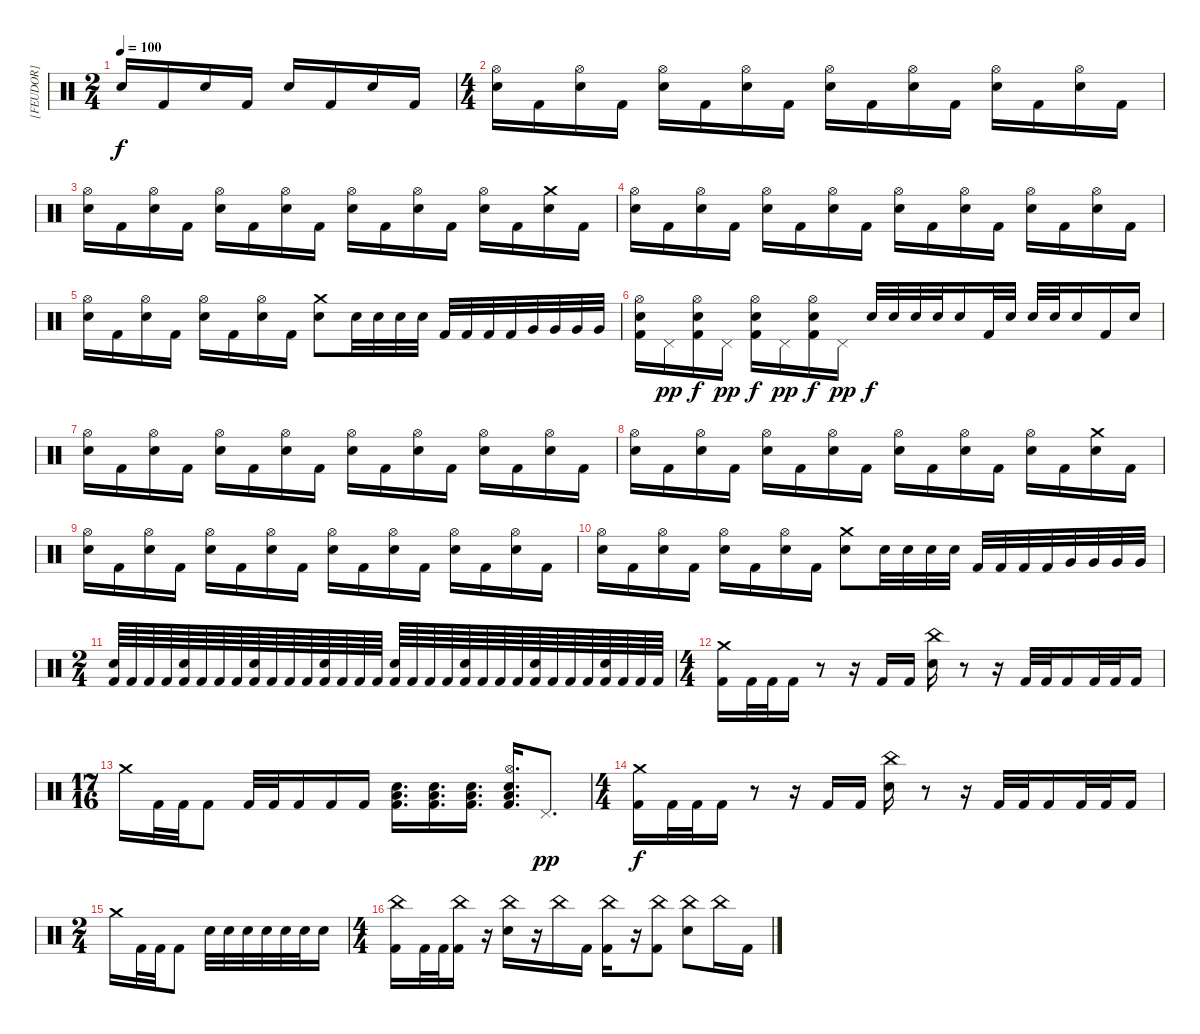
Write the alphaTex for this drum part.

\track ("[FEUDOR]" "[FEUDOR]") {instrument percussion}
\staff {score}
\articulation defaults
\ts (2 4)
\tempo 100
\clef neutral
\ks c "Electric Snare (hit)".16{dy f} "Kick (hit) 2".16 "Electric Snare (hit)".16 "Kick (hit) 2".16 "Electric Snare (hit)".16 "Kick (hit) 2".16 "Electric Snare (hit)".16 "Kick (hit) 2".16
|
\ts (4 4)
("Hi-Hat (open)" "Electric Snare (hit)").16 "Kick (hit) 2".16 ("Hi-Hat (open)" "Electric Snare (hit)").16 "Kick (hit) 2".16 ("Hi-Hat (open)" "Electric Snare (hit)").16 "Kick (hit) 2".16 ("Hi-Hat (open)" "Electric Snare (hit)").16 "Kick (hit) 2".16 ("Hi-Hat (open)" "Electric Snare (hit)").16 "Kick (hit) 2".16 ("Hi-Hat (open)" "Electric Snare (hit)").16 "Kick (hit) 2".16 ("Hi-Hat (open)" "Electric Snare (hit)").16 "Kick (hit) 2".16 ("Hi-Hat (open)" "Electric Snare (hit)").16 "Kick (hit) 2".16 |
("Hi-Hat (open)" "Electric Snare (hit)").16 "Kick (hit) 2".16 ("Hi-Hat (open)" "Electric Snare (hit)").16 "Kick (hit) 2".16 ("Hi-Hat (open)" "Electric Snare (hit)").16 "Kick (hit) 2".16 ("Hi-Hat (open)" "Electric Snare (hit)").16 "Kick (hit) 2".16 ("Hi-Hat (open)" "Electric Snare (hit)").16 "Kick (hit) 2".16 ("Hi-Hat (open)" "Electric Snare (hit)").16 "Kick (hit) 2".16 ("Hi-Hat (open)" "Electric Snare (hit)").16 "Kick (hit) 2".16 ("Crash medium (hit)" "Electric Snare (hit)").16 "Kick (hit) 2".16 |
("Hi-Hat (open)" "Electric Snare (hit)").16 "Kick (hit) 2".16 ("Hi-Hat (open)" "Electric Snare (hit)").16 "Kick (hit) 2".16 ("Hi-Hat (open)" "Electric Snare (hit)").16 "Kick (hit) 2".16 ("Hi-Hat (open)" "Electric Snare (hit)").16 "Kick (hit) 2".16 ("Hi-Hat (open)" "Electric Snare (hit)").16 "Kick (hit) 2".16 ("Hi-Hat (open)" "Electric Snare (hit)").16 "Kick (hit) 2".16 ("Hi-Hat (open)" "Electric Snare (hit)").16 "Kick (hit) 2".16 ("Hi-Hat (open)" "Electric Snare (hit)").16 "Kick (hit) 2".16 |
("Hi-Hat (open)" "Electric Snare (hit)").16 "Kick (hit) 2".16 ("Hi-Hat (open)" "Electric Snare (hit)").16 "Kick (hit) 2".16 ("Hi-Hat (open)" "Electric Snare (hit)").16 "Kick (hit) 2".16 ("Hi-Hat (open)" "Electric Snare (hit)").16 "Kick (hit) 2".16 ("Crash medium (hit)" "Electric Snare (hit)").8 "Electric Snare (hit)".32 "Electric Snare (hit)".32 "Electric Snare (hit)".32 "Electric Snare (hit)".32 "Kick (hit) 2".32 "Kick (hit) 2".32 "Kick (hit) 2".32 "Kick (hit) 2".32 "Very Low Tom (hit)".32 "Very Low Tom (hit)".32 "Very Low Tom (hit)".32 "Very Low Tom (hit)".32 |
("Hi-Hat (open)" "Electric Snare (hit)" "Kick (hit) 2").16 "Pedal Hi-Hat (hit)".16{dy pp} ("Hi-Hat (open)" "Electric Snare (hit)" "Kick (hit) 2").16{dy f} "Pedal Hi-Hat (hit)".16{dy pp} ("Hi-Hat (open)" "Electric Snare (hit)" "Kick (hit) 2").16{dy f} "Pedal Hi-Hat (hit)".16{dy pp} ("Hi-Hat (open)" "Electric Snare (hit)" "Kick (hit) 2").16{dy f} "Pedal Hi-Hat (hit)".16{dy pp} "Electric Snare (hit)".32{dy f} "Electric Snare (hit)".32 "Electric Snare (hit)".32 "Electric Snare (hit)".32 "Electric Snare (hit)".16 "Kick (hit) 2".32 "Electric Snare (hit)".32 "Electric Snare (hit)".32 "Electric Snare (hit)".32 "Electric Snare (hit)".16 "Kick (hit) 2".16 "Electric Snare (hit)".16 |
("Hi-Hat (open)" "Electric Snare (hit)").16 "Kick (hit) 2".16 ("Hi-Hat (open)" "Electric Snare (hit)").16 "Kick (hit) 2".16 ("Hi-Hat (open)" "Electric Snare (hit)").16 "Kick (hit) 2".16 ("Hi-Hat (open)" "Electric Snare (hit)").16 "Kick (hit) 2".16 ("Hi-Hat (open)" "Electric Snare (hit)").16 "Kick (hit) 2".16 ("Hi-Hat (open)" "Electric Snare (hit)").16 "Kick (hit) 2".16 ("Hi-Hat (open)" "Electric Snare (hit)").16 "Kick (hit) 2".16 ("Hi-Hat (open)" "Electric Snare (hit)").16 "Kick (hit) 2".16 |
("Hi-Hat (open)" "Electric Snare (hit)").16 "Kick (hit) 2".16 ("Hi-Hat (open)" "Electric Snare (hit)").16 "Kick (hit) 2".16 ("Hi-Hat (open)" "Electric Snare (hit)").16 "Kick (hit) 2".16 ("Hi-Hat (open)" "Electric Snare (hit)").16 "Kick (hit) 2".16 ("Hi-Hat (open)" "Electric Snare (hit)").16 "Kick (hit) 2".16 ("Hi-Hat (open)" "Electric Snare (hit)").16 "Kick (hit) 2".16 ("Hi-Hat (open)" "Electric Snare (hit)").16 "Kick (hit) 2".16 ("Crash medium (hit)" "Electric Snare (hit)").16 "Kick (hit) 2".16 |
("Hi-Hat (open)" "Electric Snare (hit)").16 "Kick (hit) 2".16 ("Hi-Hat (open)" "Electric Snare (hit)").16 "Kick (hit) 2".16 ("Hi-Hat (open)" "Electric Snare (hit)").16 "Kick (hit) 2".16 ("Hi-Hat (open)" "Electric Snare (hit)").16 "Kick (hit) 2".16 ("Hi-Hat (open)" "Electric Snare (hit)").16 "Kick (hit) 2".16 ("Hi-Hat (open)" "Electric Snare (hit)").16 "Kick (hit) 2".16 ("Hi-Hat (open)" "Electric Snare (hit)").16 "Kick (hit) 2".16 ("Hi-Hat (open)" "Electric Snare (hit)").16 "Kick (hit) 2".16 |
("Hi-Hat (open)" "Electric Snare (hit)").16 "Kick (hit) 2".16 ("Hi-Hat (open)" "Electric Snare (hit)").16 "Kick (hit) 2".16 ("Hi-Hat (open)" "Electric Snare (hit)").16 "Kick (hit) 2".16 ("Hi-Hat (open)" "Electric Snare (hit)").16 "Kick (hit) 2".16 ("Crash medium (hit)" "Electric Snare (hit)").8 "Electric Snare (hit)".32 "Electric Snare (hit)".32 "Electric Snare (hit)".32 "Electric Snare (hit)".32 "Kick (hit) 2".32 "Kick (hit) 2".32 "Kick (hit) 2".32 "Kick (hit) 2".32 "Very Low Tom (hit)".32 "Very Low Tom (hit)".32 "Very Low Tom (hit)".32 "Very Low Tom (hit)".32 |
\ts (2 4)
("Electric Snare (hit)" "Kick (hit) 2").64 "Kick (hit) 2".64 "Kick (hit) 2".64 "Kick (hit) 2".64 ("Electric Snare (hit)" "Kick (hit) 2").64 "Kick (hit) 2".64 "Kick (hit) 2".64 "Kick (hit) 2".64 ("Electric Snare (hit)" "Kick (hit) 2").64 "Kick (hit) 2".64 "Kick (hit) 2".64 "Kick (hit) 2".64 ("Electric Snare (hit)" "Kick (hit) 2").64 "Kick (hit) 2".64 "Kick (hit) 2".64 "Kick (hit) 2".64 ("Electric Snare (hit)" "Kick (hit) 2").64 "Kick (hit) 2".64 "Kick (hit) 2".64 "Kick (hit) 2".64 ("Electric Snare (hit)" "Kick (hit) 2").64 "Kick (hit) 2".64 "Kick (hit) 2".64 "Kick (hit) 2".64 ("Electric Snare (hit)" "Kick (hit) 2").64 "Kick (hit) 2".64 "Kick (hit) 2".64 "Kick (hit) 2".64 ("Electric Snare (hit)" "Kick (hit) 2").64 "Kick (hit) 2".64 "Kick (hit) 2".64 "Kick (hit) 2".64 |
\ts (4 4)
("Crash medium (hit)" "Kick (hit) 2").16 "Kick (hit) 2".32 "Kick (hit) 2".32 "Kick (hit) 2".16 r.8 r.16 "Kick (hit) 2".16 "Kick (hit) 2".16 ("China (hit)" "Electric Snare (hit)").16 r.8 r.16 "Kick (hit) 2".32 "Kick (hit) 2".32 "Kick (hit) 2".16 "Kick (hit) 2".32 "Kick (hit) 2".32 "Kick (hit) 2".16 |
\ts (17 16)
"Crash medium (hit)".16 "Kick (hit) 2".32 "Kick (hit) 2".32 "Kick (hit) 2".8 "Kick (hit) 2".32 "Kick (hit) 2".32 "Kick (hit) 2".16 "Kick (hit) 2".16 "Kick (hit) 2".16 ("Electric Snare (hit)" "Low Tom (hit)" "Kick (hit) 2").16{d} ("Electric Snare (hit)" "Low Tom (hit)" "Kick (hit) 2").16{d} ("Electric Snare (hit)" "Low Tom (hit)" "Kick (hit) 2").16{d} ("Hi-Hat (open)" "Electric Snare (hit)" "Low Tom (hit)" "Kick (hit) 2").16{d} "Pedal Hi-Hat (hit)".8{d dy pp} |
\ts (4 4)
("Crash medium (hit)" "Kick (hit) 2").16{dy f} "Kick (hit) 2".32 "Kick (hit) 2".32 "Kick (hit) 2".16 r.8 r.16 "Kick (hit) 2".16 "Kick (hit) 2".16 ("China (hit)" "Electric Snare (hit)").16 r.8 r.16 "Kick (hit) 2".32 "Kick (hit) 2".32 "Kick (hit) 2".16 "Kick (hit) 2".32 "Kick (hit) 2".32 "Kick (hit) 2".16 |
\ts (2 4)
"Crash medium (hit)".16 "Kick (hit) 2".32 "Kick (hit) 2".32 "Kick (hit) 2".8 "Electric Snare (hit)".32 "Electric Snare (hit)".32 "Electric Snare (hit)".32 "Electric Snare (hit)".32 "Electric Snare (hit)".32 "Electric Snare (hit)".32 "Electric Snare (hit)".16 |
\ts (4 4)
("China (hit)" "Kick (hit) 2").16 "Kick (hit) 2".32 "Kick (hit) 2".32 ("China (hit)" "Kick (hit) 2").16 r.16 ("China (hit)" "Electric Snare (hit)").16 r.16 "China (hit)".16 "Kick (hit) 2".16 ("China (hit)" "Kick (hit) 2").16 r.16 ("China (hit)" "Kick (hit) 2").8 ("China (hit)" "Electric Snare (hit)").8 "China (hit)".16 "Kick (hit) 2".16
